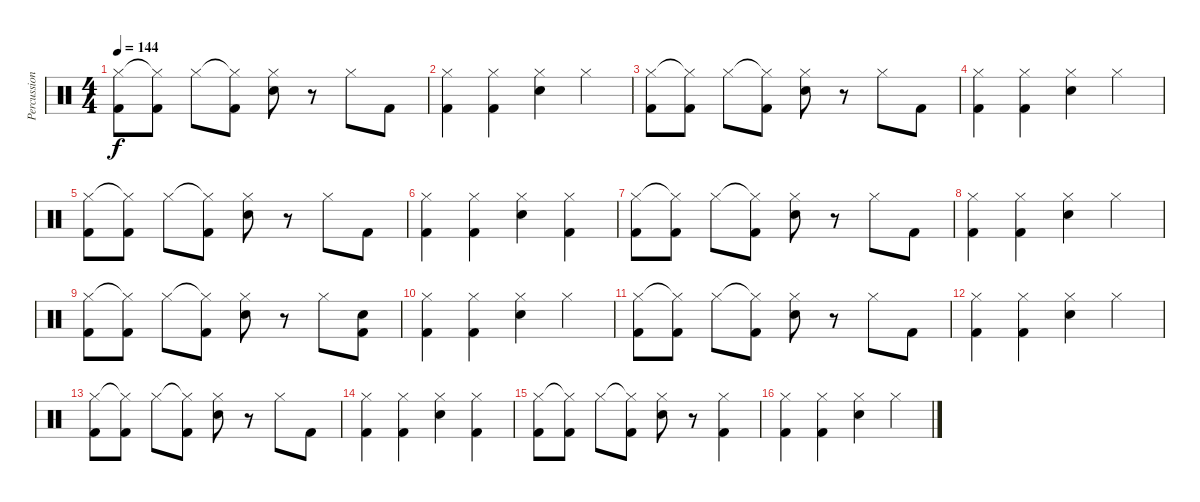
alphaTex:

\track ("Percussion" "Percussion") {instrument percussion}
\staff {score}
\articulation defaults
\ts (4 4)
\tempo 144
\clef neutral
\ks c
("Hi-Hat (closed)" "Kick (hit) 2").8{dy f} ("Hi-Hat (closed)"{t} "Kick (hit) 2").8 "Hi-Hat (closed)".8 ("Hi-Hat (closed)"{t} "Kick (hit) 2").8 ("Hi-Hat (closed)" "Snare (hit) 2").8 r.8 "Hi-Hat (closed)".8 "Kick (hit) 2".8 |
("Hi-Hat (closed)" "Kick (hit) 2").4 ("Hi-Hat (closed)" "Kick (hit) 2").4 ("Hi-Hat (closed)" "Snare (hit) 2").4 "Hi-Hat (closed)".4 |
("Hi-Hat (closed)" "Kick (hit) 2").8 ("Hi-Hat (closed)"{t} "Kick (hit) 2").8 "Hi-Hat (closed)".8 ("Hi-Hat (closed)"{t} "Kick (hit) 2").8 ("Hi-Hat (closed)" "Snare (hit) 2").8 r.8 "Hi-Hat (closed)".8 "Kick (hit) 2".8 |
("Hi-Hat (closed)" "Kick (hit) 2").4 ("Hi-Hat (closed)" "Kick (hit) 2").4 ("Hi-Hat (closed)" "Snare (hit) 2").4 "Hi-Hat (closed)".4 |
("Hi-Hat (closed)" "Kick (hit) 2").8 ("Hi-Hat (closed)"{t} "Kick (hit) 2").8 "Hi-Hat (closed)".8 ("Hi-Hat (closed)"{t} "Kick (hit) 2").8 ("Hi-Hat (closed)" "Snare (hit) 2").8 r.8 "Hi-Hat (closed)".8 "Kick (hit) 2".8 |
("Hi-Hat (closed)" "Kick (hit) 2").4 ("Hi-Hat (closed)" "Kick (hit) 2").4 ("Hi-Hat (closed)" "Snare (hit) 2").4 ("Hi-Hat (closed)" "Kick (hit) 2").4 |
("Hi-Hat (closed)" "Kick (hit) 2").8 ("Hi-Hat (closed)"{t} "Kick (hit) 2").8 "Hi-Hat (closed)".8 ("Hi-Hat (closed)"{t} "Kick (hit) 2").8 ("Hi-Hat (closed)" "Snare (hit) 2").8 r.8 "Hi-Hat (closed)".8 "Kick (hit) 2".8 |
("Hi-Hat (closed)" "Kick (hit) 2").4 ("Hi-Hat (closed)" "Kick (hit) 2").4 ("Hi-Hat (closed)" "Snare (hit) 2").4 "Hi-Hat (closed)".4 |
("Hi-Hat (closed)" "Kick (hit) 2").8 ("Hi-Hat (closed)"{t} "Kick (hit) 2").8 "Hi-Hat (closed)".8 ("Hi-Hat (closed)"{t} "Kick (hit) 2").8 ("Hi-Hat (closed)" "Snare (hit) 2").8 r.8 "Hi-Hat (closed)".8 ("Snare (hit) 2" "Kick (hit) 2").8 |
("Hi-Hat (closed)" "Kick (hit) 2").4 ("Hi-Hat (closed)" "Kick (hit) 2").4 ("Hi-Hat (closed)" "Snare (hit) 2").4 "Hi-Hat (closed)".4 |
("Hi-Hat (closed)" "Kick (hit) 2").8 ("Hi-Hat (closed)"{t} "Kick (hit) 2").8 "Hi-Hat (closed)".8 ("Hi-Hat (closed)"{t} "Kick (hit) 2").8 ("Hi-Hat (closed)" "Snare (hit) 2").8 r.8 "Hi-Hat (closed)".8 "Kick (hit) 2".8 |
("Hi-Hat (closed)" "Kick (hit) 2").4 ("Hi-Hat (closed)" "Kick (hit) 2").4 ("Hi-Hat (closed)" "Snare (hit) 2").4 "Hi-Hat (closed)".4 |
("Hi-Hat (closed)" "Kick (hit) 2").8 ("Hi-Hat (closed)"{t} "Kick (hit) 2").8 "Hi-Hat (closed)".8 ("Hi-Hat (closed)"{t} "Kick (hit) 2").8 ("Hi-Hat (closed)" "Snare (hit) 2").8 r.8 "Hi-Hat (closed)".8 "Kick (hit) 2".8 |
("Hi-Hat (closed)" "Kick (hit) 2").4 ("Hi-Hat (closed)" "Kick (hit) 2").4 ("Hi-Hat (closed)" "Snare (hit) 2").4 ("Hi-Hat (closed)" "Kick (hit) 2").4 |
("Hi-Hat (closed)" "Kick (hit) 2").8 ("Hi-Hat (closed)"{t} "Kick (hit) 2").8 "Hi-Hat (closed)".8 ("Hi-Hat (closed)"{t} "Kick (hit) 2").8 ("Hi-Hat (closed)" "Snare (hit) 2").8 r.8 ("Hi-Hat (closed)" "Kick (hit) 2").4 |
("Hi-Hat (closed)" "Kick (hit) 2").4 ("Hi-Hat (closed)" "Kick (hit) 2").4 ("Hi-Hat (closed)" "Snare (hit) 2").4 "Hi-Hat (closed)".4
